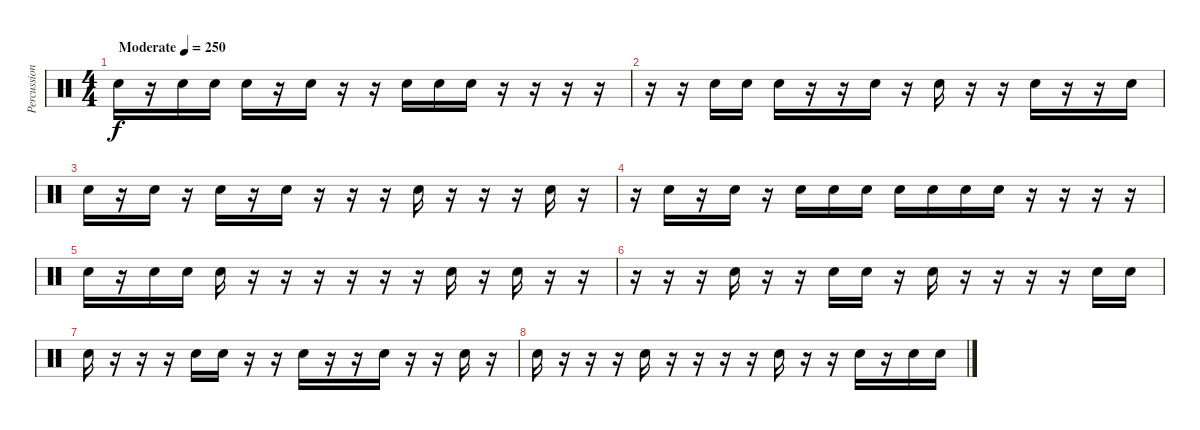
\track ("Percussion" "Percussion") {instrument percussion}
\staff {score}
\articulation defaults
\ts (4 4)
\tempo (250 "Moderate")
\clef neutral
\ks c "Snare (hit) 2".16{dy f}
r.16 "Snare (hit) 2".16 "Snare (hit) 2".16 "Snare (hit) 2".16 r.16 "Snare (hit) 2".16 r.16 r.16 "Snare (hit) 2".16 "Snare (hit) 2".16 "Snare (hit) 2".16 r.16 r.16 r.16 r.16 |
r.16 r.16 "Snare (hit) 2".16 "Snare (hit) 2".16 "Snare (hit) 2".16 r.16 r.16 "Snare (hit) 2".16 r.16 "Snare (hit) 2".16 r.16 r.16 "Snare (hit) 2".16 r.16 r.16 "Snare (hit) 2".16 |
"Snare (hit) 2".16 r.16 "Snare (hit) 2".16 r.16 "Snare (hit) 2".16 r.16 "Snare (hit) 2".16 r.16 r.16 r.16 "Snare (hit) 2".16 r.16 r.16 r.16 "Snare (hit) 2".16 r.16 |
r.16 "Snare (hit) 2".16 r.16 "Snare (hit) 2".16 r.16 "Snare (hit) 2".16 "Snare (hit) 2".16 "Snare (hit) 2".16 "Snare (hit) 2".16 "Snare (hit) 2".16 "Snare (hit) 2".16 "Snare (hit) 2".16 r.16 r.16 r.16 r.16 |
"Snare (hit) 2".16 r.16 "Snare (hit) 2".16 "Snare (hit) 2".16 "Snare (hit) 2".16 r.16 r.16 r.16 r.16 r.16 r.16 "Snare (hit) 2".16 r.16 "Snare (hit) 2".16 r.16 r.16 |
r.16 r.16 r.16 "Snare (hit) 2".16 r.16 r.16 "Snare (hit) 2".16 "Snare (hit) 2".16 r.16 "Snare (hit) 2".16 r.16 r.16 r.16 r.16 "Snare (hit) 2".16 "Snare (hit) 2".16 |
"Snare (hit) 2".16 r.16 r.16 r.16 "Snare (hit) 2".16 "Snare (hit) 2".16 r.16 r.16 "Snare (hit) 2".16 r.16 r.16 "Snare (hit) 2".16 r.16 r.16 "Snare (hit) 2".16 r.16 |
"Snare (hit) 2".16 r.16 r.16 r.16 "Snare (hit) 2".16 r.16 r.16 r.16 r.16 "Snare (hit) 2".16 r.16 r.16 "Snare (hit) 2".16 r.16 "Snare (hit) 2".16 "Snare (hit) 2".16
